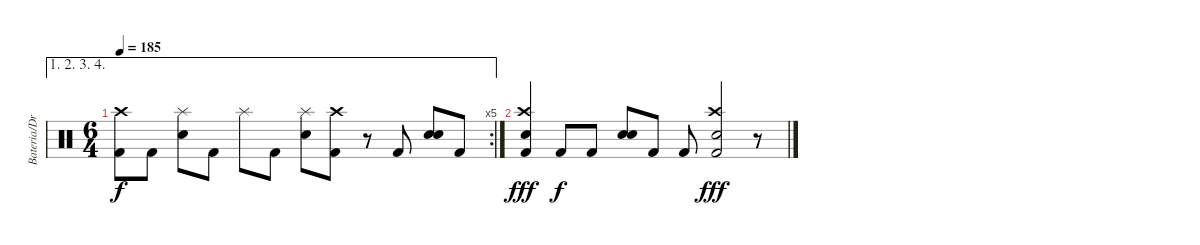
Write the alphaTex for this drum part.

\track ("Bateria/Drums" "Bateria/Dr") {instrument percussion}
\staff {score}
\articulation defaults
\ae (1 2 3 4)
\rc 5
\ts (6 4)
\tempo 185
\clef neutral
\ks c
("Kick (hit) 2" "Crash high (hit)").8{dy f} "Kick (hit) 2".8 ("Electric Snare (hit)" "Splash (hit)").8 "Kick (hit) 2".8 "Splash (hit)".8 "Kick (hit) 2".8 ("Electric Snare (hit)" "Splash (hit)").8 ("Kick (hit) 2" "Crash high (hit)").8 r.8 "Kick (hit) 2".8 ("Electric Snare (hit)" "Electric Snare (hit)").8{bd 480} "Kick (hit) 2".8 |
("Kick (hit) 2" "Electric Snare (hit)" "Crash high (hit)").4{dy fff} "Kick (hit) 2".8{dy f} "Kick (hit) 2".8 ("Electric Snare (hit)" "Electric Snare (hit)").8{bd 480} "Kick (hit) 2".8 "Kick (hit) 2".8 ("Kick (hit) 2" "Electric Snare (hit)" "Crash high (hit)").2{dy fff} r.8
